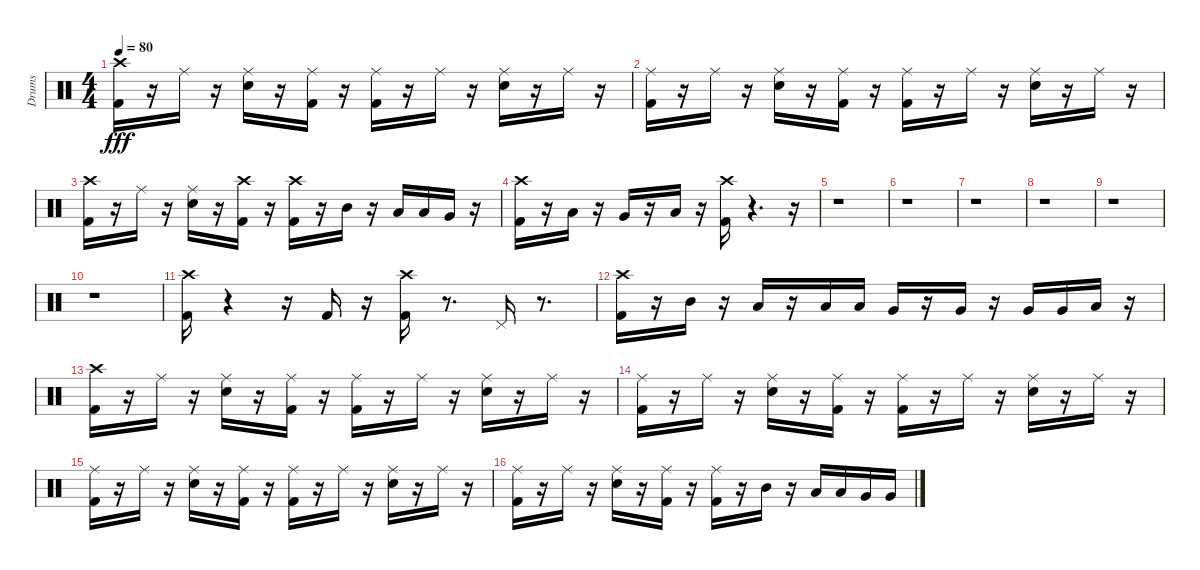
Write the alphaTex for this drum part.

\track ("Drums" "Drums") {instrument percussion}
\staff {score}
\articulation defaults
\ts (4 4)
\tempo 80
\clef neutral
\ks c
("Kick (hit) 2" "Crash high (hit)").16{dy fff} r.16 "Ride (middle)".16 r.16 ("Electric Snare (hit)" "Ride (middle)").16 r.16 ("Kick (hit) 2" "Ride (middle)").16 r.16 ("Kick (hit) 2" "Ride (middle)").16 r.16 "Ride (middle)".16 r.16 ("Electric Snare (hit)" "Ride (middle)").16 r.16 "Ride (middle)".16 r.16 |
("Kick (hit) 2" "Ride (middle)").16 r.16 "Ride (middle)".16 r.16 ("Electric Snare (hit)" "Ride (middle)").16 r.16 ("Kick (hit) 2" "Ride (middle)").16 r.16 ("Kick (hit) 2" "Ride (middle)").16 r.16 "Ride (middle)".16 r.16 ("Electric Snare (hit)" "Ride (middle)").16 r.16 "Ride (middle)".16 r.16 |
("Kick (hit) 2" "Crash high (hit)").16 r.16 "Ride (middle)".16 r.16 ("Electric Snare (hit)" "Ride (middle)").16 r.16 ("Kick (hit) 2" "Crash high (hit)").16 r.16 ("Kick (hit) 2" "Crash high (hit)").16 r.16 "Mid Tom (hit)".16 r.16 "Low Tom (hit)".16 "Low Tom (hit)".16 "Very Low Tom (hit)".16 r.16 |
("Crash high (hit)" "Kick (hit) 2").16 r.16 "Low Tom (hit)".16 r.16 "Very Low Tom (hit)".16 r.16 "Low Floor Tom (hit)".16 r.16 ("Crash high (hit)" "Kick (hit) 2").16 r.4{d} r.16 |
r.1 |
r.1 |
r.1 |
r.1 |
r.1 |
r.1 |
("Kick (hit) 2" "Crash high (hit)").16 r.4 r.16 "Kick (hit) 2".16 r.16 ("Kick (hit) 2" "Crash high (hit)").16 r.8{d} "Pedal Hi-Hat (hit)".16 r.8{d} |
("Kick (hit) 2" "Crash high (hit)").16 r.16 "Mid Tom (hit)".16 r.16 "Low Tom (hit)".16 r.16 "Low Tom (hit)".16 "Low Tom (hit)".16 "Very Low Tom (hit)".16 r.16 "Very Low Tom (hit)".16 r.16 "Very Low Tom (hit)".16 "Very Low Tom (hit)".16 "Low Floor Tom (hit)".16 r.16 |
("Kick (hit) 2" "Crash high (hit)").16 r.16 "Ride (middle)".16 r.16 ("Electric Snare (hit)" "Ride (middle)").16 r.16 ("Kick (hit) 2" "Ride (middle)").16 r.16 ("Kick (hit) 2" "Ride (middle)").16 r.16 "Ride (middle)".16 r.16 ("Electric Snare (hit)" "Ride (middle)").16 r.16 "Ride (middle)".16 r.16 |
("Kick (hit) 2" "Ride (middle)").16 r.16 "Ride (middle)".16 r.16 ("Electric Snare (hit)" "Ride (middle)").16 r.16 ("Kick (hit) 2" "Ride (middle)").16 r.16 ("Kick (hit) 2" "Ride (middle)").16 r.16 "Ride (middle)".16 r.16 ("Electric Snare (hit)" "Ride (middle)").16 r.16 "Ride (middle)".16 r.16 |
("Kick (hit) 2" "Ride (middle)").16 r.16 "Ride (middle)".16 r.16 ("Electric Snare (hit)" "Ride (middle)").16 r.16 ("Kick (hit) 2" "Ride (middle)").16 r.16 ("Kick (hit) 2" "Ride (middle)").16 r.16 "Ride (middle)".16 r.16 ("Electric Snare (hit)" "Ride (middle)").16 r.16 "Ride (middle)".16 r.16 |
("Kick (hit) 2" "Ride (middle)").16 r.16 "Ride (middle)".16 r.16 ("Electric Snare (hit)" "Ride (middle)").16 r.16 ("Kick (hit) 2" "Ride (middle)").16 r.16 ("Kick (hit) 2" "Ride (middle)").16 r.16 "Mid Tom (hit)".16 r.16 "Low Tom (hit)".16 "Low Tom (hit)".16 "Very Low Tom (hit)".16 "Very Low Tom (hit)".16
